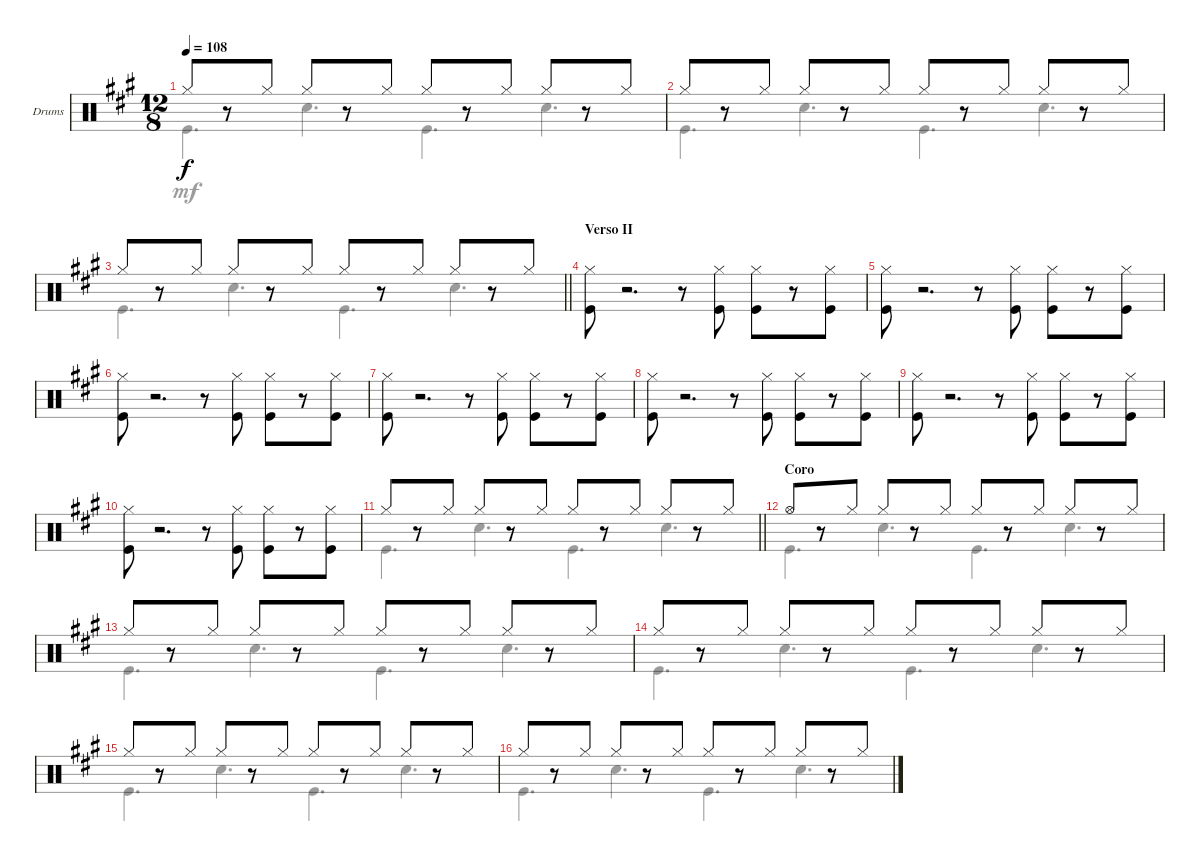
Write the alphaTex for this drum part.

\bracketExtendMode groupsimilarinstruments
\firstSystemTrackNameOrientation horizontal
\otherSystemsTrackNameOrientation horizontal
\track ("Drumkit" "Drums") {instrument percussion}
\staff {score}
\articulation defaults
\voice
\ts (12 8)
\tempo 108
\clef neutral
\ks a "Hi-Hat (closed)".8{dy f}
r.8 "Hi-Hat (closed)".8 "Hi-Hat (closed)".8 r.8 "Hi-Hat (closed)".8 "Hi-Hat (closed)".8 r.8 "Hi-Hat (closed)".8 "Hi-Hat (closed)".8 r.8 "Hi-Hat (closed)".8 |
"Hi-Hat (closed)".8 r.8 "Hi-Hat (closed)".8 "Hi-Hat (closed)".8 r.8 "Hi-Hat (closed)".8 "Hi-Hat (closed)".8 r.8 "Hi-Hat (closed)".8 "Hi-Hat (closed)".8 r.8 "Hi-Hat (closed)".8 |
\barLineRight lightlight "Hi-Hat (closed)".8
r.8 "Hi-Hat (closed)".8 "Hi-Hat (closed)".8 r.8 "Hi-Hat (closed)".8 "Hi-Hat (closed)".8 r.8 "Hi-Hat (closed)".8 "Hi-Hat (closed)".8 r.8 "Hi-Hat (closed)".8 |
\section ("" "Verso II")
("Hi-Hat (closed)" "Kick (hit)").8 r.2{d} r.8 ("Hi-Hat (closed)" "Kick (hit)").8 ("Hi-Hat (closed)" "Kick (hit)").8 r.8 ("Hi-Hat (closed)" "Kick (hit)").8 |
("Hi-Hat (closed)" "Kick (hit)").8 r.2{d} r.8 ("Hi-Hat (closed)" "Kick (hit)").8 ("Hi-Hat (closed)" "Kick (hit)").8 r.8 ("Hi-Hat (closed)" "Kick (hit)").8 |
("Hi-Hat (closed)" "Kick (hit)").8 r.2{d} r.8 ("Hi-Hat (closed)" "Kick (hit)").8 ("Hi-Hat (closed)" "Kick (hit)").8 r.8 ("Hi-Hat (closed)" "Kick (hit)").8 |
("Hi-Hat (closed)" "Kick (hit)").8 r.2{d} r.8 ("Hi-Hat (closed)" "Kick (hit)").8 ("Hi-Hat (closed)" "Kick (hit)").8 r.8 ("Hi-Hat (closed)" "Kick (hit)").8 |
("Hi-Hat (closed)" "Kick (hit)").8 r.2{d} r.8 ("Hi-Hat (closed)" "Kick (hit)").8 ("Hi-Hat (closed)" "Kick (hit)").8 r.8 ("Hi-Hat (closed)" "Kick (hit)").8 |
("Hi-Hat (closed)" "Kick (hit)").8 r.2{d} r.8 ("Hi-Hat (closed)" "Kick (hit)").8 ("Hi-Hat (closed)" "Kick (hit)").8 r.8 ("Hi-Hat (closed)" "Kick (hit)").8 |
("Hi-Hat (closed)" "Kick (hit)").8 r.2{d} r.8 ("Hi-Hat (closed)" "Kick (hit)").8 ("Hi-Hat (closed)" "Kick (hit)").8 r.8 ("Hi-Hat (closed)" "Kick (hit)").8 |
\barLineRight lightlight "Hi-Hat (closed)".8
r.8 "Hi-Hat (closed)".8 "Hi-Hat (closed)".8 r.8 "Hi-Hat (closed)".8 "Hi-Hat (closed)".8 r.8 "Hi-Hat (closed)".8 "Hi-Hat (closed)".8 r.8 "Hi-Hat (closed)".8 |
\section ("" "Coro")
"Hi-Hat (open)".8 r.8 "Hi-Hat (closed)".8 "Hi-Hat (closed)".8 r.8 "Hi-Hat (closed)".8 "Hi-Hat (closed)".8 r.8 "Hi-Hat (closed)".8 "Hi-Hat (closed)".8 r.8 "Hi-Hat (closed)".8 |
"Hi-Hat (closed)".8 r.8 "Hi-Hat (closed)".8 "Hi-Hat (closed)".8 r.8 "Hi-Hat (closed)".8 "Hi-Hat (closed)".8 r.8 "Hi-Hat (closed)".8 "Hi-Hat (closed)".8 r.8 "Hi-Hat (closed)".8 |
"Hi-Hat (closed)".8 r.8 "Hi-Hat (closed)".8 "Hi-Hat (closed)".8 r.8 "Hi-Hat (closed)".8 "Hi-Hat (closed)".8 r.8 "Hi-Hat (closed)".8 "Hi-Hat (closed)".8 r.8 "Hi-Hat (closed)".8 |
"Hi-Hat (closed)".8 r.8 "Hi-Hat (closed)".8 "Hi-Hat (closed)".8 r.8 "Hi-Hat (closed)".8 "Hi-Hat (closed)".8 r.8 "Hi-Hat (closed)".8 "Hi-Hat (closed)".8 r.8 "Hi-Hat (closed)".8 |
"Hi-Hat (closed)".8 r.8 "Hi-Hat (closed)".8 "Hi-Hat (closed)".8 r.8 "Hi-Hat (closed)".8 "Hi-Hat (closed)".8 r.8 "Hi-Hat (closed)".8 "Hi-Hat (closed)".8 r.8 "Hi-Hat (closed)".8
\voice
\clef neutral
\ottava regular
\simile none
\ks a "Kick (hit)".4{d dy mf} "Snare (hit) 2".4{d} "Kick (hit)".4{d} "Snare (hit) 2".4{d}
|
"Kick (hit)".4{d} "Snare (hit) 2".4{d} "Kick (hit)".4{d} "Snare (hit) 2".4{d} |
\barLineRight lightlight "Kick (hit)".4{d} "Snare (hit) 2".4{d} "Kick (hit)".4{d} "Snare (hit) 2".4{d}
|
|
|
|
|
|
|
|
\barLineRight lightlight "Kick (hit)".4{d} "Snare (hit) 2".4{d} "Kick (hit)".4{d} "Snare (hit) 2".4{d}
|
"Kick (hit)".4{d} "Snare (hit) 2".4{d} "Kick (hit)".4{d} "Snare (hit) 2".4{d} |
"Kick (hit)".4{d} "Snare (hit) 2".4{d} "Kick (hit)".4{d} "Snare (hit) 2".4{d} |
"Kick (hit)".4{d} "Snare (hit) 2".4{d} "Kick (hit)".4{d} "Snare (hit) 2".4{d} |
"Kick (hit)".4{d} "Snare (hit) 2".4{d} "Kick (hit)".4{d} "Snare (hit) 2".4{d} |
"Kick (hit)".4{d} "Snare (hit) 2".4{d} "Kick (hit)".4{d} "Snare (hit) 2".4{d}
